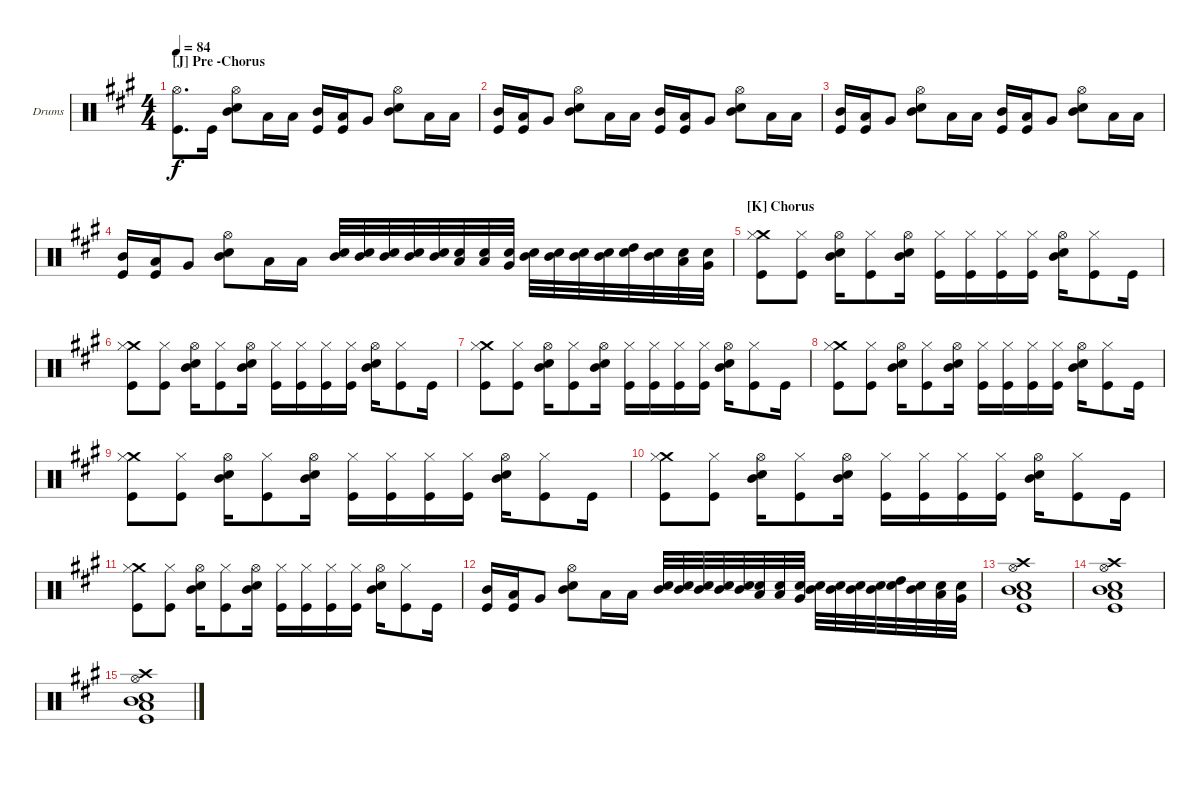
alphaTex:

\defaultSystemsLayout 4
\bracketExtendMode groupsimilarinstruments
\firstSystemTrackNameOrientation horizontal
\otherSystemsTrackNameOrientation horizontal
\track ("Drumkit" "Drums") {instrument percussion}
\staff {score}
\articulation defaults
\ts (4 4)
\section ("J" "Pre -Chorus")
\tempo 84
\clef neutral
\scale
1.05801
\ks a
("Hi-Hat (open)" "Kick (hit)").8{d dy f} "Kick (hit)".16 ("Snare (hit) 2" "Mid Tom (hit)" "Hi-Hat (open)").8 "Low Tom (hit)".16 "Low Tom (hit)".16 ("Mid Tom (hit)" "Kick (hit)").16 ("Low Tom (hit)" "Kick (hit)").16 "Very Low Tom (hit)".8 ("Snare (hit) 2" "Mid Tom (hit)" "Hi-Hat (open)").8 "Low Tom (hit)".16 "Low Tom (hit)".16 |
\scale
0.941992 ("Mid Tom (hit)" "Kick (hit)").16 ("Low Tom (hit)" "Kick (hit)").16 "Very Low Tom (hit)".8 ("Snare (hit) 2" "Mid Tom (hit)" "Hi-Hat (open)").8 "Low Tom (hit)".16 "Low Tom (hit)".16 ("Mid Tom (hit)" "Kick (hit)").16 ("Low Tom (hit)" "Kick (hit)").16 "Very Low Tom (hit)".8 ("Snare (hit) 2" "Mid Tom (hit)" "Hi-Hat (open)").8 "Low Tom (hit)".16 "Low Tom (hit)".16 |
\scale
1.05801 ("Mid Tom (hit)" "Kick (hit)").16 ("Low Tom (hit)" "Kick (hit)").16 "Very Low Tom (hit)".8 ("Snare (hit) 2" "Mid Tom (hit)" "Hi-Hat (open)").8 "Low Tom (hit)".16 "Low Tom (hit)".16 ("Mid Tom (hit)" "Kick (hit)").16 ("Low Tom (hit)" "Kick (hit)").16 "Very Low Tom (hit)".8 ("Snare (hit) 2" "Mid Tom (hit)" "Hi-Hat (open)").8 "Low Tom (hit)".16 "Low Tom (hit)".16 |
\scale
0.941992 ("Mid Tom (hit)" "Kick (hit)").16 ("Low Tom (hit)" "Kick (hit)").16 "Very Low Tom (hit)".8 ("Snare (hit) 2" "Mid Tom (hit)" "Hi-Hat (open)").8 "Low Tom (hit)".16 "Low Tom (hit)".16 ("Mid Tom (hit)" "Snare (hit) 2").32 ("Mid Tom (hit)" "Snare (hit) 2").32 ("Mid Tom (hit)" "Snare (hit) 2").32 ("Mid Tom (hit)" "Snare (hit) 2").32 ("Mid Tom (hit)" "Snare (hit) 2").32 ("Low Tom (hit)" "Snare (hit) 2").32 ("Low Tom (hit)" "Snare (hit) 2").32 ("Very Low Tom (hit)" "Snare (hit) 2").32 ("Mid Tom (hit)" "Snare (hit) 2").32 ("Mid Tom (hit)" "Snare (hit) 2").32 ("Mid Tom (hit)" "Snare (hit) 2").32 ("Mid Tom (hit)" "Snare (hit) 2").32 ("High Tom (hit)" "Snare (hit) 2").32 ("Mid Tom (hit)" "Snare (hit) 2").32 ("Low Tom (hit)" "Snare (hit) 2").32 ("Very Low Tom (hit)" "Snare (hit) 2").32 |
\section ("K" "Chorus")
\scale
1.05801 ("Crash medium (hit)" "Kick (hit)" "Hi-Hat (closed)").8 ("Kick (hit)" "Hi-Hat (closed)").8 ("Snare (hit) 2" "Mid Tom (hit)" "Hi-Hat (open)").16 ("Kick (hit)" "Hi-Hat (closed)").8 ("Snare (hit) 2" "Mid Tom (hit)" "Hi-Hat (open)").16 ("Kick (hit)" "Hi-Hat (closed)").16 ("Kick (hit)" "Hi-Hat (closed)").16 ("Kick (hit)" "Hi-Hat (closed)").16 ("Kick (hit)" "Hi-Hat (closed)").16 ("Snare (hit) 2" "Mid Tom (hit)" "Hi-Hat (open)").16 ("Kick (hit)" "Hi-Hat (closed)").8 "Kick (hit)".16 |
\scale
0.941992 ("Crash medium (hit)" "Kick (hit)" "Hi-Hat (closed)").8 ("Kick (hit)" "Hi-Hat (closed)").8 ("Snare (hit) 2" "Mid Tom (hit)" "Hi-Hat (open)").16 ("Kick (hit)" "Hi-Hat (closed)").8 ("Snare (hit) 2" "Mid Tom (hit)" "Hi-Hat (open)").16 ("Kick (hit)" "Hi-Hat (closed)").16 ("Kick (hit)" "Hi-Hat (closed)").16 ("Kick (hit)" "Hi-Hat (closed)").16 ("Kick (hit)" "Hi-Hat (closed)").16 ("Snare (hit) 2" "Mid Tom (hit)" "Hi-Hat (open)").16 ("Kick (hit)" "Hi-Hat (closed)").8 "Kick (hit)".16 |
\scale
1.05801 ("Crash medium (hit)" "Kick (hit)" "Hi-Hat (closed)").8 ("Kick (hit)" "Hi-Hat (closed)").8 ("Snare (hit) 2" "Mid Tom (hit)" "Hi-Hat (open)").16 ("Kick (hit)" "Hi-Hat (closed)").8 ("Snare (hit) 2" "Mid Tom (hit)" "Hi-Hat (open)").16 ("Kick (hit)" "Hi-Hat (closed)").16 ("Kick (hit)" "Hi-Hat (closed)").16 ("Kick (hit)" "Hi-Hat (closed)").16 ("Kick (hit)" "Hi-Hat (closed)").16 ("Snare (hit) 2" "Mid Tom (hit)" "Hi-Hat (open)").16 ("Kick (hit)" "Hi-Hat (closed)").8 "Kick (hit)".16 |
\scale
0.941992 ("Crash medium (hit)" "Kick (hit)" "Hi-Hat (closed)").8 ("Kick (hit)" "Hi-Hat (closed)").8 ("Snare (hit) 2" "Mid Tom (hit)" "Hi-Hat (open)").16 ("Kick (hit)" "Hi-Hat (closed)").8 ("Snare (hit) 2" "Mid Tom (hit)" "Hi-Hat (open)").16 ("Kick (hit)" "Hi-Hat (closed)").16 ("Kick (hit)" "Hi-Hat (closed)").16 ("Kick (hit)" "Hi-Hat (closed)").16 ("Kick (hit)" "Hi-Hat (closed)").16 ("Snare (hit) 2" "Mid Tom (hit)" "Hi-Hat (open)").16 ("Kick (hit)" "Hi-Hat (closed)").8 "Kick (hit)".16 |
\scale
1.05801 ("Crash medium (hit)" "Kick (hit)" "Hi-Hat (closed)").8 ("Kick (hit)" "Hi-Hat (closed)").8 ("Snare (hit) 2" "Mid Tom (hit)" "Hi-Hat (open)").16 ("Kick (hit)" "Hi-Hat (closed)").8 ("Snare (hit) 2" "Mid Tom (hit)" "Hi-Hat (open)").16 ("Kick (hit)" "Hi-Hat (closed)").16 ("Kick (hit)" "Hi-Hat (closed)").16 ("Kick (hit)" "Hi-Hat (closed)").16 ("Kick (hit)" "Hi-Hat (closed)").16 ("Snare (hit) 2" "Mid Tom (hit)" "Hi-Hat (open)").16 ("Kick (hit)" "Hi-Hat (closed)").8 "Kick (hit)".16 |
\scale
0.941992 ("Crash medium (hit)" "Kick (hit)" "Hi-Hat (closed)").8 ("Kick (hit)" "Hi-Hat (closed)").8 ("Snare (hit) 2" "Mid Tom (hit)" "Hi-Hat (open)").16 ("Kick (hit)" "Hi-Hat (closed)").8 ("Snare (hit) 2" "Mid Tom (hit)" "Hi-Hat (open)").16 ("Kick (hit)" "Hi-Hat (closed)").16 ("Kick (hit)" "Hi-Hat (closed)").16 ("Kick (hit)" "Hi-Hat (closed)").16 ("Kick (hit)" "Hi-Hat (closed)").16 ("Snare (hit) 2" "Mid Tom (hit)" "Hi-Hat (open)").16 ("Kick (hit)" "Hi-Hat (closed)").8 "Kick (hit)".16 |
\scale
1.05801 ("Crash medium (hit)" "Kick (hit)" "Hi-Hat (closed)").8 ("Kick (hit)" "Hi-Hat (closed)").8 ("Snare (hit) 2" "Mid Tom (hit)" "Hi-Hat (open)").16 ("Kick (hit)" "Hi-Hat (closed)").8 ("Snare (hit) 2" "Mid Tom (hit)" "Hi-Hat (open)").16 ("Kick (hit)" "Hi-Hat (closed)").16 ("Kick (hit)" "Hi-Hat (closed)").16 ("Kick (hit)" "Hi-Hat (closed)").16 ("Kick (hit)" "Hi-Hat (closed)").16 ("Snare (hit) 2" "Mid Tom (hit)" "Hi-Hat (open)").16 ("Kick (hit)" "Hi-Hat (closed)").8 "Kick (hit)".16 |
\scale
0.941992 ("Mid Tom (hit)" "Kick (hit)").16 ("Low Tom (hit)" "Kick (hit)").16 "Very Low Tom (hit)".8 ("Snare (hit) 2" "Mid Tom (hit)" "Hi-Hat (open)").8 "Low Tom (hit)".16 "Low Tom (hit)".16 ("Mid Tom (hit)" "Snare (hit) 2").32 ("Mid Tom (hit)" "Snare (hit) 2").32 ("Mid Tom (hit)" "Snare (hit) 2").32 ("Mid Tom (hit)" "Snare (hit) 2").32 ("Mid Tom (hit)" "Snare (hit) 2").32 ("Low Tom (hit)" "Snare (hit) 2").32 ("Low Tom (hit)" "Snare (hit) 2").32 ("Very Low Tom (hit)" "Snare (hit) 2").32 ("Mid Tom (hit)" "Snare (hit) 2").32 ("Mid Tom (hit)" "Snare (hit) 2").32 ("Mid Tom (hit)" "Snare (hit) 2").32 ("Mid Tom (hit)" "Snare (hit) 2").32 ("High Tom (hit)" "Snare (hit) 2").32 ("Mid Tom (hit)" "Snare (hit) 2").32 ("Low Tom (hit)" "Snare (hit) 2").32 ("Very Low Tom (hit)" "Snare (hit) 2").32 |
\scale
1.05801 ("Hi-Hat (open)" "Kick (hit)" "Crash high (hit)" "Snare (hit) 2" "Mid Tom (hit)" "Low Tom (hit)").1 |
\scale
0.941992 ("Hi-Hat (open)" "Kick (hit)" "Crash high (hit)" "Snare (hit) 2" "Mid Tom (hit)" "Low Tom (hit)").1 |
\scale
1.05801 ("Hi-Hat (open)" "Kick (hit)" "Crash high (hit)" "Snare (hit) 2" "Mid Tom (hit)" "Low Tom (hit)").1 |
\scale
0.941992
